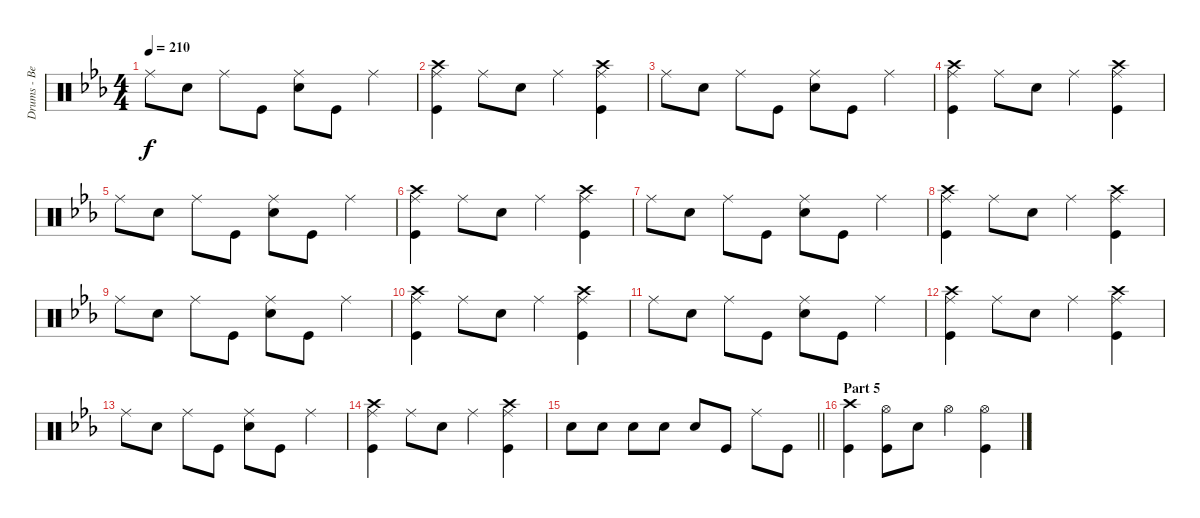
\track ("Drums - Ben Johnston" "Drums - Be") {instrument percussion}
\staff {score}
\articulation defaults
\ts (4 4)
\tempo 210
\clef neutral
\ks cminor "Ride (middle)".8{dy f} "Snare (hit) 2".8 "Ride (middle)".8 "Kick (hit)".8
("Ride (middle)" "Snare (hit) 2").8 "Kick (hit)".8 "Ride (middle)".4 |
("Crash high (hit)" "Ride (middle)" "Kick (hit)").4 "Ride (middle)".8 "Snare (hit) 2".8 "Ride (middle)".4 ("Crash high (hit)" "Ride (middle)" "Kick (hit)").4 |
"Ride (middle)".8 "Snare (hit) 2".8 "Ride (middle)".8 "Kick (hit)".8 ("Ride (middle)" "Snare (hit) 2").8 "Kick (hit)".8 "Ride (middle)".4 |
("Crash high (hit)" "Ride (middle)" "Kick (hit)").4 "Ride (middle)".8 "Snare (hit) 2".8 "Ride (middle)".4 ("Crash high (hit)" "Ride (middle)" "Kick (hit)").4 |
"Ride (middle)".8 "Snare (hit) 2".8 "Ride (middle)".8 "Kick (hit)".8 ("Ride (middle)" "Snare (hit) 2").8 "Kick (hit)".8 "Ride (middle)".4 |
("Crash high (hit)" "Ride (middle)" "Kick (hit)").4 "Ride (middle)".8 "Snare (hit) 2".8 "Ride (middle)".4 ("Crash high (hit)" "Ride (middle)" "Kick (hit)").4 |
"Ride (middle)".8 "Snare (hit) 2".8 "Ride (middle)".8 "Kick (hit)".8 ("Ride (middle)" "Snare (hit) 2").8 "Kick (hit)".8 "Ride (middle)".4 |
("Crash high (hit)" "Ride (middle)" "Kick (hit)").4 "Ride (middle)".8 "Snare (hit) 2".8 "Ride (middle)".4 ("Crash high (hit)" "Ride (middle)" "Kick (hit)").4 |
"Ride (middle)".8 "Snare (hit) 2".8 "Ride (middle)".8 "Kick (hit)".8 ("Ride (middle)" "Snare (hit) 2").8 "Kick (hit)".8 "Ride (middle)".4 |
("Crash high (hit)" "Ride (middle)" "Kick (hit)").4 "Ride (middle)".8 "Snare (hit) 2".8 "Ride (middle)".4 ("Crash high (hit)" "Ride (middle)" "Kick (hit)").4 |
"Ride (middle)".8 "Snare (hit) 2".8 "Ride (middle)".8 "Kick (hit)".8 ("Ride (middle)" "Snare (hit) 2").8 "Kick (hit)".8 "Ride (middle)".4 |
("Crash high (hit)" "Ride (middle)" "Kick (hit)").4 "Ride (middle)".8 "Snare (hit) 2".8 "Ride (middle)".4 ("Crash high (hit)" "Ride (middle)" "Kick (hit)").4 |
"Ride (middle)".8 "Snare (hit) 2".8 "Ride (middle)".8 "Kick (hit)".8 ("Ride (middle)" "Snare (hit) 2").8 "Kick (hit)".8 "Ride (middle)".4 |
("Crash high (hit)" "Ride (middle)" "Kick (hit)").4 "Ride (middle)".8 "Snare (hit) 2".8 "Ride (middle)".4 ("Crash high (hit)" "Ride (middle)" "Kick (hit)").4 |
\barLineRight lightlight "Snare (hit) 2".8 "Snare (hit) 2".8 "Snare (hit) 2".8 "Snare (hit) 2".8 "Snare (hit) 2".8 "Kick (hit)".8 "Ride (middle)".8 "Kick (hit)".8
|
\section ("" "Part 5")
("Crash high (hit)" "Kick (hit)").4 ("Hi-Hat (open)" "Kick (hit)").8 "Snare (hit) 2".8 "Hi-Hat (open)".4 ("Hi-Hat (open)" "Kick (hit)").4
